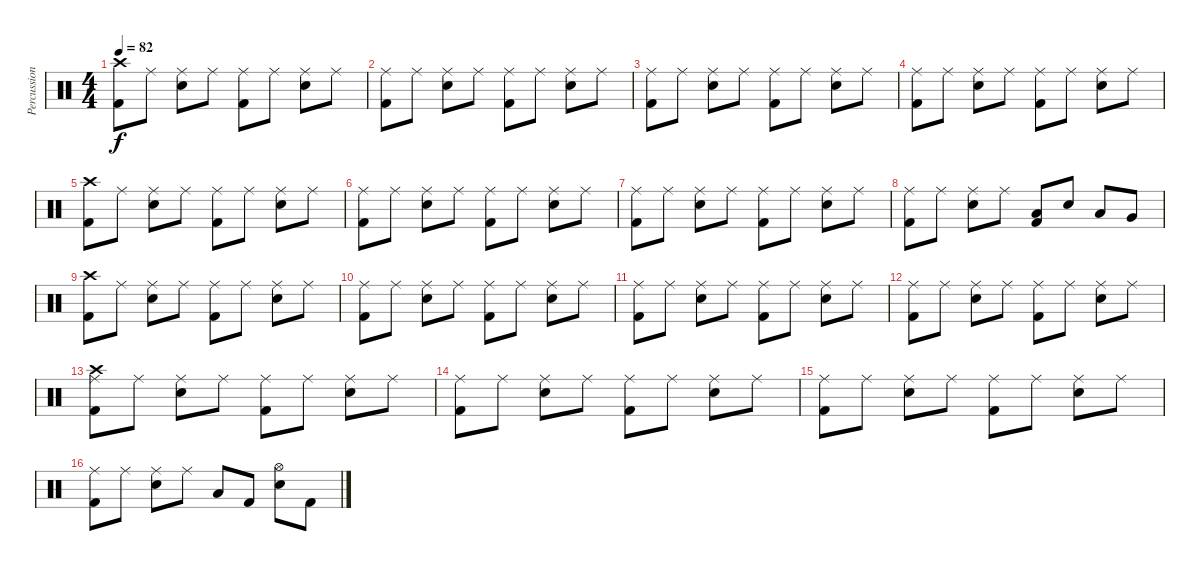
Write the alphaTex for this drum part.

\track ("Percussion" "Percussion") {instrument percussion}
\staff {score}
\articulation defaults
\ts (4 4)
\tempo 82
\clef neutral
\ks c
("Crash high (hit)" "Kick (hit) 2").8{dy f} "Ride (middle)".8 ("Ride (middle)" "Snare (hit) 2").8 "Ride (middle)".8 ("Ride (middle)" "Kick (hit) 2").8 "Ride (middle)".8 ("Ride (middle)" "Snare (hit) 2").8 "Ride (middle)".8 |
("Ride (middle)" "Kick (hit) 2").8 "Ride (middle)".8 ("Ride (middle)" "Snare (hit) 2").8 "Ride (middle)".8 ("Ride (middle)" "Kick (hit) 2").8 "Ride (middle)".8 ("Ride (middle)" "Snare (hit) 2").8 "Ride (middle)".8 |
("Ride (middle)" "Kick (hit) 2").8 "Ride (middle)".8 ("Ride (middle)" "Snare (hit) 2").8 "Ride (middle)".8 ("Ride (middle)" "Kick (hit) 2").8 "Ride (middle)".8 ("Ride (middle)" "Snare (hit) 2").8 "Ride (middle)".8 |
("Ride (middle)" "Kick (hit) 2").8 "Ride (middle)".8 ("Ride (middle)" "Snare (hit) 2").8 "Ride (middle)".8 ("Ride (middle)" "Kick (hit) 2").8 "Ride (middle)".8 ("Ride (middle)" "Snare (hit) 2").8 "Ride (middle)".8 |
("Crash high (hit)" "Kick (hit) 2").8 "Ride (middle)".8 ("Ride (middle)" "Snare (hit) 2").8 "Ride (middle)".8 ("Ride (middle)" "Kick (hit) 2").8 "Ride (middle)".8 ("Ride (middle)" "Snare (hit) 2").8 "Ride (middle)".8 |
("Ride (middle)" "Kick (hit) 2").8 "Ride (middle)".8 ("Ride (middle)" "Snare (hit) 2").8 "Ride (middle)".8 ("Ride (middle)" "Kick (hit) 2").8 "Ride (middle)".8 ("Ride (middle)" "Snare (hit) 2").8 "Ride (middle)".8 |
("Ride (middle)" "Kick (hit) 2").8 "Ride (middle)".8 ("Ride (middle)" "Snare (hit) 2").8 "Ride (middle)".8 ("Ride (middle)" "Kick (hit) 2").8 "Ride (middle)".8 ("Ride (middle)" "Snare (hit) 2").8 "Ride (middle)".8 |
("Ride (middle)" "Kick (hit) 2").8 "Ride (middle)".8 ("Ride (middle)" "Snare (hit) 2").8 "Ride (middle)".8 ("Low Floor Tom (hit)" "Kick (hit) 2").8 "Snare (hit) 2".8 "Low Tom (hit)".8 "Very Low Tom (hit)".8 |
("Crash high (hit)" "Kick (hit) 2").8 "Ride (middle)".8 ("Ride (middle)" "Snare (hit) 2").8 "Ride (middle)".8 ("Ride (middle)" "Kick (hit) 2").8 "Ride (middle)".8 ("Ride (middle)" "Snare (hit) 2").8 "Ride (middle)".8 |
("Ride (middle)" "Kick (hit) 2").8 "Ride (middle)".8 ("Ride (middle)" "Snare (hit) 2").8 "Ride (middle)".8 ("Ride (middle)" "Kick (hit) 2").8 "Ride (middle)".8 ("Ride (middle)" "Snare (hit) 2").8 "Ride (middle)".8 |
("Ride (middle)" "Kick (hit) 2").8 "Ride (middle)".8 ("Ride (middle)" "Snare (hit) 2").8 "Ride (middle)".8 ("Ride (middle)" "Kick (hit) 2").8 "Ride (middle)".8 ("Ride (middle)" "Snare (hit) 2").8 "Ride (middle)".8 |
("Ride (middle)" "Kick (hit) 2").8 "Ride (middle)".8 ("Ride (middle)" "Snare (hit) 2").8 "Ride (middle)".8 ("Ride (middle)" "Kick (hit) 2").8 "Ride (middle)".8 ("Ride (middle)" "Snare (hit) 2").8 "Ride (middle)".8 |
("Crash high (hit)" "Ride (middle)" "Kick (hit) 2").8 "Ride (middle)".8 ("Ride (middle)" "Snare (hit) 2").8 "Ride (middle)".8 ("Ride (middle)" "Kick (hit) 2").8 "Ride (middle)".8 ("Ride (middle)" "Snare (hit) 2").8 "Ride (middle)".8 |
("Ride (middle)" "Kick (hit) 2").8 "Ride (middle)".8 ("Ride (middle)" "Snare (hit) 2").8 "Ride (middle)".8 ("Ride (middle)" "Kick (hit) 2").8 "Ride (middle)".8 ("Ride (middle)" "Snare (hit) 2").8 "Ride (middle)".8 |
("Ride (middle)" "Kick (hit) 2").8 "Ride (middle)".8 ("Ride (middle)" "Snare (hit) 2").8 "Ride (middle)".8 ("Ride (middle)" "Kick (hit) 2").8 "Ride (middle)".8 ("Ride (middle)" "Snare (hit) 2").8 "Ride (middle)".8 |
("Ride (middle)" "Kick (hit) 2").8 "Ride (middle)".8 ("Ride (middle)" "Snare (hit) 2").8 "Ride (middle)".8 "Low Floor Tom (hit)".8 "Kick (hit) 2".8 ("Hi-Hat (open)" "Snare (hit) 2").8 "Kick (hit) 2".8
